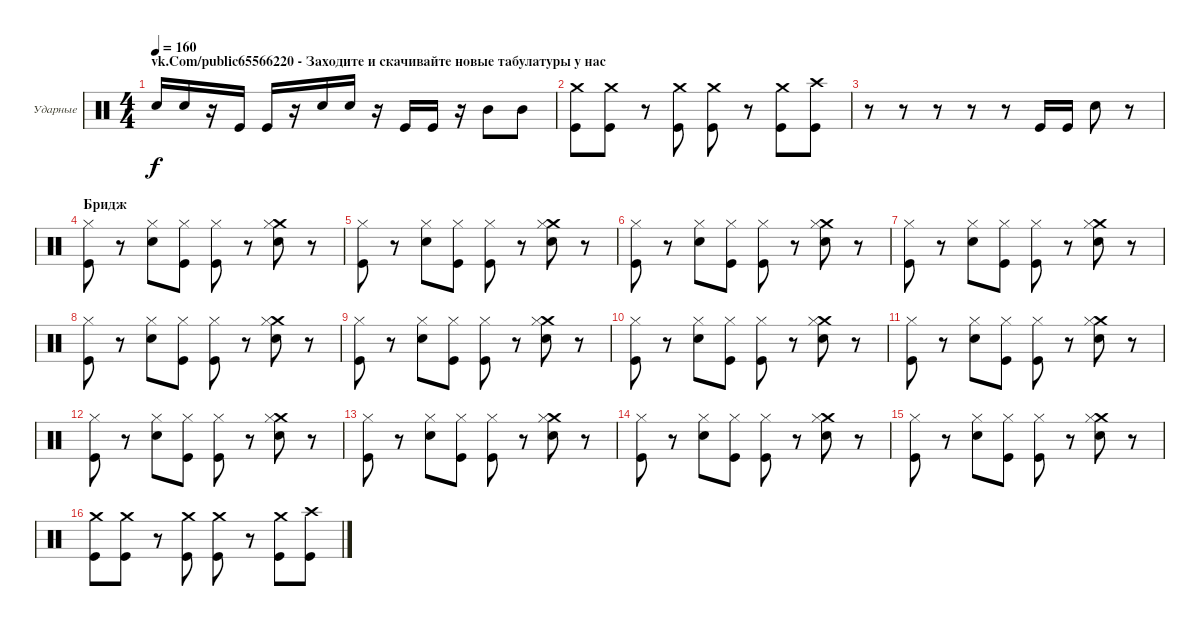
\bracketExtendMode groupsimilarinstruments
\firstSystemTrackNameOrientation horizontal
\otherSystemsTrackNameOrientation horizontal
\track ("Александр Львов" "Ударные") {instrument percussion}
\staff {score}
\articulation defaults
\ts (4 4)
\section ("" "vk.Com/public65566220 - Заходите и скачивайте новые табулатуры у нас")
\tempo 160
\clef neutral
\ks c "Snare (hit) 2".16{dy f} "Snare (hit) 2".16
r.16 "Kick (hit)".16 "Kick (hit)".16 r.16 "Snare (hit) 2".16 "Snare (hit) 2".16 r.16 "Kick (hit)".16 "Kick (hit)".16 r.16 "Mid Tom (hit)".8 "Mid Tom (hit)".8 |
("Kick (hit)" "Crash medium (hit)").8 ("Kick (hit)" "Crash medium (hit)").8 r.8 ("Kick (hit)" "Crash medium (hit)").8 ("Kick (hit)" "Crash medium (hit)").8 r.8 ("Kick (hit)" "Crash medium (hit)").8 ("Kick (hit)" "Crash high (hit)").8 |
r.8 r.8 r.8 r.8 r.8 "Kick (hit)".16 "Kick (hit)".16 "Snare (hit) 2".8 r.8 |
\section ("" "Бридж")
("Kick (hit)" "Hi-Hat (closed)").8 r.8 ("Snare (hit) 2" "Hi-Hat (closed)").8 ("Kick (hit)" "Hi-Hat (closed)").8 ("Kick (hit)" "Hi-Hat (closed)").8 r.8 ("Snare (hit) 2" "Crash medium (hit)" "Hi-Hat (closed)").8 r.8 |
("Kick (hit)" "Hi-Hat (closed)").8 r.8 ("Snare (hit) 2" "Hi-Hat (closed)").8 ("Kick (hit)" "Hi-Hat (closed)").8 ("Kick (hit)" "Hi-Hat (closed)").8 r.8 ("Snare (hit) 2" "Crash medium (hit)" "Hi-Hat (closed)").8 r.8 |
("Kick (hit)" "Hi-Hat (closed)").8 r.8 ("Snare (hit) 2" "Hi-Hat (closed)").8 ("Kick (hit)" "Hi-Hat (closed)").8 ("Kick (hit)" "Hi-Hat (closed)").8 r.8 ("Snare (hit) 2" "Crash medium (hit)" "Hi-Hat (closed)").8 r.8 |
("Kick (hit)" "Hi-Hat (closed)").8 r.8 ("Snare (hit) 2" "Hi-Hat (closed)").8 ("Kick (hit)" "Hi-Hat (closed)").8 ("Kick (hit)" "Hi-Hat (closed)").8 r.8 ("Snare (hit) 2" "Crash medium (hit)" "Hi-Hat (closed)").8 r.8 |
("Kick (hit)" "Hi-Hat (closed)").8 r.8 ("Snare (hit) 2" "Hi-Hat (closed)").8 ("Kick (hit)" "Hi-Hat (closed)").8 ("Kick (hit)" "Hi-Hat (closed)").8 r.8 ("Snare (hit) 2" "Crash medium (hit)" "Hi-Hat (closed)").8 r.8 |
("Kick (hit)" "Hi-Hat (closed)").8 r.8 ("Snare (hit) 2" "Hi-Hat (closed)").8 ("Kick (hit)" "Hi-Hat (closed)").8 ("Kick (hit)" "Hi-Hat (closed)").8 r.8 ("Snare (hit) 2" "Crash medium (hit)" "Hi-Hat (closed)").8 r.8 |
("Kick (hit)" "Hi-Hat (closed)").8 r.8 ("Snare (hit) 2" "Hi-Hat (closed)").8 ("Kick (hit)" "Hi-Hat (closed)").8 ("Kick (hit)" "Hi-Hat (closed)").8 r.8 ("Snare (hit) 2" "Crash medium (hit)" "Hi-Hat (closed)").8 r.8 |
("Kick (hit)" "Hi-Hat (closed)").8 r.8 ("Snare (hit) 2" "Hi-Hat (closed)").8 ("Kick (hit)" "Hi-Hat (closed)").8 ("Kick (hit)" "Hi-Hat (closed)").8 r.8 ("Snare (hit) 2" "Crash medium (hit)" "Hi-Hat (closed)").8 r.8 |
("Kick (hit)" "Hi-Hat (closed)").8 r.8 ("Snare (hit) 2" "Hi-Hat (closed)").8 ("Kick (hit)" "Hi-Hat (closed)").8 ("Kick (hit)" "Hi-Hat (closed)").8 r.8 ("Snare (hit) 2" "Crash medium (hit)" "Hi-Hat (closed)").8 r.8 |
("Kick (hit)" "Hi-Hat (closed)").8 r.8 ("Snare (hit) 2" "Hi-Hat (closed)").8 ("Kick (hit)" "Hi-Hat (closed)").8 ("Kick (hit)" "Hi-Hat (closed)").8 r.8 ("Snare (hit) 2" "Crash medium (hit)" "Hi-Hat (closed)").8 r.8 |
("Kick (hit)" "Hi-Hat (closed)").8 r.8 ("Snare (hit) 2" "Hi-Hat (closed)").8 ("Kick (hit)" "Hi-Hat (closed)").8 ("Kick (hit)" "Hi-Hat (closed)").8 r.8 ("Snare (hit) 2" "Crash medium (hit)" "Hi-Hat (closed)").8 r.8 |
("Kick (hit)" "Hi-Hat (closed)").8 r.8 ("Snare (hit) 2" "Hi-Hat (closed)").8 ("Kick (hit)" "Hi-Hat (closed)").8 ("Kick (hit)" "Hi-Hat (closed)").8 r.8 ("Snare (hit) 2" "Crash medium (hit)" "Hi-Hat (closed)").8 r.8 |
("Kick (hit)" "Crash medium (hit)").8 ("Kick (hit)" "Crash medium (hit)").8 r.8 ("Kick (hit)" "Crash medium (hit)").8 ("Kick (hit)" "Crash medium (hit)").8 r.8 ("Kick (hit)" "Crash medium (hit)").8 ("Kick (hit)" "Crash high (hit)").8
